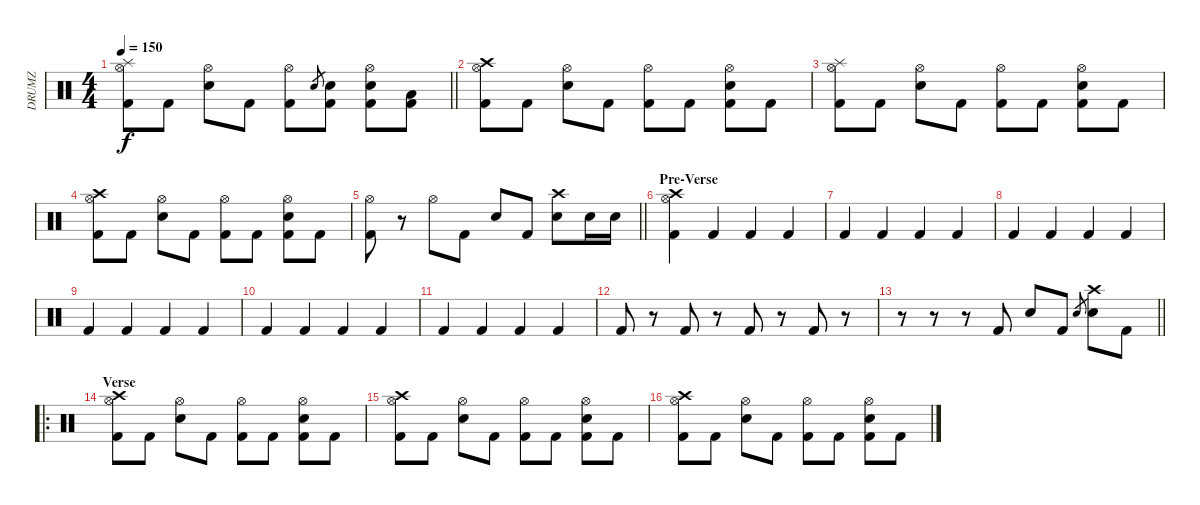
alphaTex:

\track ("DRUMZ" "DRUMZ") {instrument percussion}
\staff {score}
\articulation defaults
\ts (4 4)
\tempo 150
\clef neutral
\barLineRight lightlight
\ks c
("Splash (hit)" "Hi-Hat (open)" "Kick (hit) 2").8{dy f} "Kick (hit) 2".8 ("Hi-Hat (open)" "Electric Snare (hit)").8 "Kick (hit) 2".8 ("Hi-Hat (open)" "Kick (hit) 2").8 "Electric Snare (hit)".8{gr} ("Electric Snare (hit)" "Kick (hit) 2").8 ("Hi-Hat (open)" "Electric Snare (hit)" "Kick (hit) 2").8 ("Low Floor Tom (hit)" "Kick (hit) 2").8 |
("Crash high (hit)" "Hi-Hat (open)" "Kick (hit) 2").8 "Kick (hit) 2".8 ("Hi-Hat (open)" "Electric Snare (hit)").8 "Kick (hit) 2".8 ("Hi-Hat (open)" "Kick (hit) 2").8 "Kick (hit) 2".8 ("Hi-Hat (open)" "Electric Snare (hit)" "Kick (hit) 2").8 "Kick (hit) 2".8 |
("Splash (hit)" "Hi-Hat (open)" "Kick (hit) 2").8 "Kick (hit) 2".8 ("Hi-Hat (open)" "Electric Snare (hit)").8 "Kick (hit) 2".8 ("Hi-Hat (open)" "Kick (hit) 2").8 "Kick (hit) 2".8 ("Hi-Hat (open)" "Electric Snare (hit)" "Kick (hit) 2").8 "Kick (hit) 2".8 |
("Crash high (hit)" "Hi-Hat (open)" "Kick (hit) 2").8 "Kick (hit) 2".8 ("Hi-Hat (open)" "Electric Snare (hit)").8 "Kick (hit) 2".8 ("Hi-Hat (open)" "Kick (hit) 2").8 "Kick (hit) 2".8 ("Hi-Hat (open)" "Electric Snare (hit)" "Kick (hit) 2").8 "Kick (hit) 2".8 |
\barLineRight lightlight
("Hi-Hat (open)" "Kick (hit) 2").8 r.8 "Hi-Hat (open)".8 "Kick (hit) 2".8 "Electric Snare (hit)".8 "Kick (hit) 2".8 ("Crash high (hit)" "Electric Snare (hit)").8 "Electric Snare (hit)".16 "Electric Snare (hit)".16 |
\section ("" "Pre-Verse")
("Crash high (hit)" "Hi-Hat (open)" "Kick (hit) 2").4{volume 7} "Kick (hit) 2".4 "Kick (hit) 2".4 "Kick (hit) 2".4 |
"Kick (hit) 2".4 "Kick (hit) 2".4 "Kick (hit) 2".4 "Kick (hit) 2".4 |
"Kick (hit) 2".4 "Kick (hit) 2".4 "Kick (hit) 2".4 "Kick (hit) 2".4 |
"Kick (hit) 2".4 "Kick (hit) 2".4 "Kick (hit) 2".4 "Kick (hit) 2".4 |
"Kick (hit) 2".4 "Kick (hit) 2".4 "Kick (hit) 2".4 "Kick (hit) 2".4 |
"Kick (hit) 2".4 "Kick (hit) 2".4 "Kick (hit) 2".4 "Kick (hit) 2".4 |
"Kick (hit) 2".8 r.8 "Kick (hit) 2".8 r.8 "Kick (hit) 2".8 r.8 "Kick (hit) 2".8 r.8 |
\barLineRight lightlight
r.8 r.8 r.8 "Kick (hit) 2".8{volume 15} "Electric Snare (hit)".8 "Kick (hit) 2".8 "Electric Snare (hit)".8{gr} ("Crash high (hit)" "Electric Snare (hit)").8 "Kick (hit) 2".8 |
\ro
\section ("" "Verse")
("Crash high (hit)" "Hi-Hat (open)" "Kick (hit) 2").8 "Kick (hit) 2".8 ("Hi-Hat (open)" "Electric Snare (hit)").8 "Kick (hit) 2".8 ("Hi-Hat (open)" "Kick (hit) 2").8 "Kick (hit) 2".8 ("Hi-Hat (open)" "Electric Snare (hit)" "Kick (hit) 2").8 "Kick (hit) 2".8 |
("Crash high (hit)" "Hi-Hat (open)" "Kick (hit) 2").8 "Kick (hit) 2".8 ("Hi-Hat (open)" "Electric Snare (hit)").8 "Kick (hit) 2".8 ("Hi-Hat (open)" "Kick (hit) 2").8 "Kick (hit) 2".8 ("Hi-Hat (open)" "Electric Snare (hit)" "Kick (hit) 2").8 "Kick (hit) 2".8 |
("Crash high (hit)" "Hi-Hat (open)" "Kick (hit) 2").8 "Kick (hit) 2".8 ("Hi-Hat (open)" "Electric Snare (hit)").8 "Kick (hit) 2".8 ("Hi-Hat (open)" "Kick (hit) 2").8 "Kick (hit) 2".8 ("Hi-Hat (open)" "Electric Snare (hit)" "Kick (hit) 2").8 "Kick (hit) 2".8
